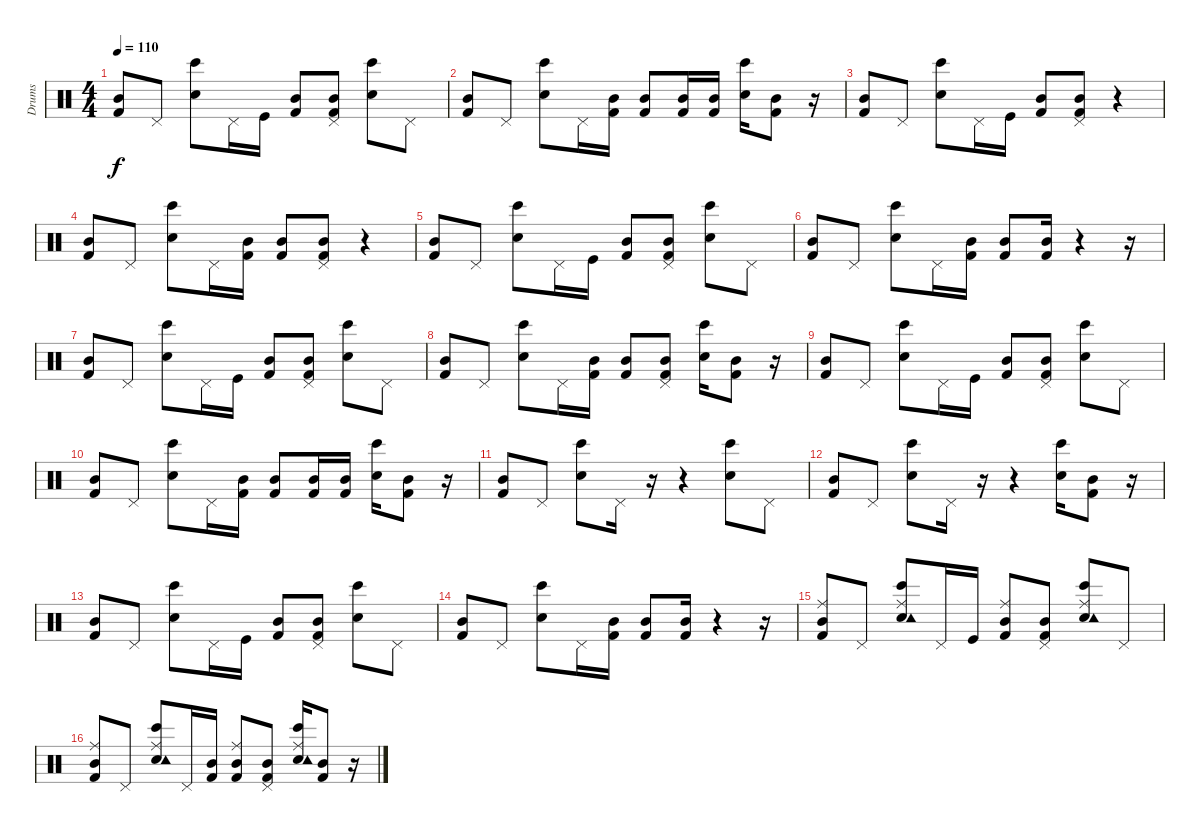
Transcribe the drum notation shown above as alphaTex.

\track ("Drums" "Drums") {instrument percussion}
\staff {score}
\articulation defaults
\ts (4 4)
\tempo 110
\clef neutral
\ks c
("Mid Tom (hit)" "Kick (hit) 2").8{dy f} "Pedal Hi-Hat (hit)".8 ("Electric Snare (hit)" "Bongo High (hit)").8 "Pedal Hi-Hat (hit)".16 "Kick (hit)".16 ("Mid Tom (hit)" "Kick (hit) 2").8 ("Pedal Hi-Hat (hit)" "Mid Tom (hit)" "Kick (hit) 2").8 ("Electric Snare (hit)" "Bongo High (hit)").8 "Pedal Hi-Hat (hit)".8 |
("Mid Tom (hit)" "Kick (hit) 2").8 "Pedal Hi-Hat (hit)".8 ("Electric Snare (hit)" "Bongo High (hit)").8 "Pedal Hi-Hat (hit)".16 ("Mid Tom (hit)" "Kick (hit) 2").16 ("Mid Tom (hit)" "Kick (hit) 2").8 ("Mid Tom (hit)" "Kick (hit) 2").16 ("Mid Tom (hit)" "Kick (hit) 2").16 ("Electric Snare (hit)" "Bongo High (hit)").16 ("Mid Tom (hit)" "Kick (hit) 2").8 r.16 |
("Mid Tom (hit)" "Kick (hit) 2").8 "Pedal Hi-Hat (hit)".8 ("Electric Snare (hit)" "Bongo High (hit)").8 "Pedal Hi-Hat (hit)".16 "Kick (hit)".16 ("Mid Tom (hit)" "Kick (hit) 2").8 ("Pedal Hi-Hat (hit)" "Mid Tom (hit)" "Kick (hit) 2").8 r.4 |
("Mid Tom (hit)" "Kick (hit) 2").8 "Pedal Hi-Hat (hit)".8 ("Electric Snare (hit)" "Bongo High (hit)").8 "Pedal Hi-Hat (hit)".16 ("Mid Tom (hit)" "Kick (hit) 2").16 ("Mid Tom (hit)" "Kick (hit) 2").8 ("Pedal Hi-Hat (hit)" "Mid Tom (hit)" "Kick (hit) 2").8 r.4 |
("Mid Tom (hit)" "Kick (hit) 2").8 "Pedal Hi-Hat (hit)".8 ("Electric Snare (hit)" "Bongo High (hit)").8 "Pedal Hi-Hat (hit)".16 "Kick (hit)".16 ("Mid Tom (hit)" "Kick (hit) 2").8 ("Pedal Hi-Hat (hit)" "Mid Tom (hit)" "Kick (hit) 2").8 ("Electric Snare (hit)" "Bongo High (hit)").8 "Pedal Hi-Hat (hit)".8 |
("Mid Tom (hit)" "Kick (hit) 2").8 "Pedal Hi-Hat (hit)".8 ("Electric Snare (hit)" "Bongo High (hit)").8 "Pedal Hi-Hat (hit)".16 ("Mid Tom (hit)" "Kick (hit) 2").16 ("Mid Tom (hit)" "Kick (hit) 2").8 ("Mid Tom (hit)" "Kick (hit) 2").16 r.4 r.16 |
("Mid Tom (hit)" "Kick (hit) 2").8 "Pedal Hi-Hat (hit)".8 ("Electric Snare (hit)" "Bongo High (hit)").8 "Pedal Hi-Hat (hit)".16 "Kick (hit)".16 ("Mid Tom (hit)" "Kick (hit) 2").8 ("Pedal Hi-Hat (hit)" "Mid Tom (hit)" "Kick (hit) 2").8 ("Electric Snare (hit)" "Bongo High (hit)").8 "Pedal Hi-Hat (hit)".8 |
("Mid Tom (hit)" "Kick (hit) 2").8 "Pedal Hi-Hat (hit)".8 ("Electric Snare (hit)" "Bongo High (hit)").8 "Pedal Hi-Hat (hit)".16 ("Mid Tom (hit)" "Kick (hit) 2").16 ("Mid Tom (hit)" "Kick (hit) 2").8 ("Pedal Hi-Hat (hit)" "Mid Tom (hit)" "Kick (hit) 2").8 ("Electric Snare (hit)" "Bongo High (hit)").16 ("Mid Tom (hit)" "Kick (hit) 2").8 r.16 |
("Mid Tom (hit)" "Kick (hit) 2").8 "Pedal Hi-Hat (hit)".8 ("Electric Snare (hit)" "Bongo High (hit)").8 "Pedal Hi-Hat (hit)".16 "Kick (hit)".16 ("Mid Tom (hit)" "Kick (hit) 2").8 ("Pedal Hi-Hat (hit)" "Mid Tom (hit)" "Kick (hit) 2").8 ("Electric Snare (hit)" "Bongo High (hit)").8 "Pedal Hi-Hat (hit)".8 |
("Mid Tom (hit)" "Kick (hit) 2").8 "Pedal Hi-Hat (hit)".8 ("Electric Snare (hit)" "Bongo High (hit)").8 "Pedal Hi-Hat (hit)".16 ("Mid Tom (hit)" "Kick (hit) 2").16 ("Mid Tom (hit)" "Kick (hit) 2").8 ("Mid Tom (hit)" "Kick (hit) 2").16 ("Mid Tom (hit)" "Kick (hit) 2").16 ("Electric Snare (hit)" "Bongo High (hit)").16 ("Mid Tom (hit)" "Kick (hit) 2").8 r.16 |
("Mid Tom (hit)" "Kick (hit) 2").8 "Pedal Hi-Hat (hit)".8 ("Electric Snare (hit)" "Bongo High (hit)").8 "Pedal Hi-Hat (hit)".16 r.16 r.4 ("Electric Snare (hit)" "Bongo High (hit)").8 "Pedal Hi-Hat (hit)".8 |
("Mid Tom (hit)" "Kick (hit) 2").8 "Pedal Hi-Hat (hit)".8 ("Electric Snare (hit)" "Bongo High (hit)").8 "Pedal Hi-Hat (hit)".16 r.16 r.4 ("Electric Snare (hit)" "Bongo High (hit)").16 ("Mid Tom (hit)" "Kick (hit) 2").8 r.16 |
("Mid Tom (hit)" "Kick (hit) 2").8 "Pedal Hi-Hat (hit)".8 ("Electric Snare (hit)" "Bongo High (hit)").8 "Pedal Hi-Hat (hit)".16 "Kick (hit)".16 ("Mid Tom (hit)" "Kick (hit) 2").8 ("Pedal Hi-Hat (hit)" "Mid Tom (hit)" "Kick (hit) 2").8 ("Electric Snare (hit)" "Bongo High (hit)").8 "Pedal Hi-Hat (hit)".8 |
("Mid Tom (hit)" "Kick (hit) 2").8 "Pedal Hi-Hat (hit)".8 ("Electric Snare (hit)" "Bongo High (hit)").8 "Pedal Hi-Hat (hit)".16 ("Mid Tom (hit)" "Kick (hit) 2").16 ("Mid Tom (hit)" "Kick (hit) 2").8 ("Mid Tom (hit)" "Kick (hit) 2").16 r.4 r.16 |
("Ride (middle)" "Mid Tom (hit)" "Kick (hit) 2").8 "Pedal Hi-Hat (hit)".8 ("Ride (middle)" "Electric Snare (hit)" "Bongo High (hit)" "Tambourine (hit)").8 "Pedal Hi-Hat (hit)".16 "Kick (hit)".16 ("Ride (middle)" "Mid Tom (hit)" "Kick (hit) 2").8 ("Pedal Hi-Hat (hit)" "Mid Tom (hit)" "Kick (hit) 2").8 ("Ride (middle)" "Electric Snare (hit)" "Bongo High (hit)" "Tambourine (hit)").8 "Pedal Hi-Hat (hit)".8 |
("Ride (middle)" "Mid Tom (hit)" "Kick (hit) 2").8 "Pedal Hi-Hat (hit)".8 ("Ride (middle)" "Electric Snare (hit)" "Bongo High (hit)" "Tambourine (hit)").8 "Pedal Hi-Hat (hit)".16 ("Mid Tom (hit)" "Kick (hit) 2").16 ("Ride (middle)" "Mid Tom (hit)" "Kick (hit) 2").8 ("Pedal Hi-Hat (hit)" "Mid Tom (hit)" "Kick (hit) 2").8 ("Ride (middle)" "Electric Snare (hit)" "Bongo High (hit)" "Tambourine (hit)").16 ("Mid Tom (hit)" "Kick (hit) 2").8 r.16
